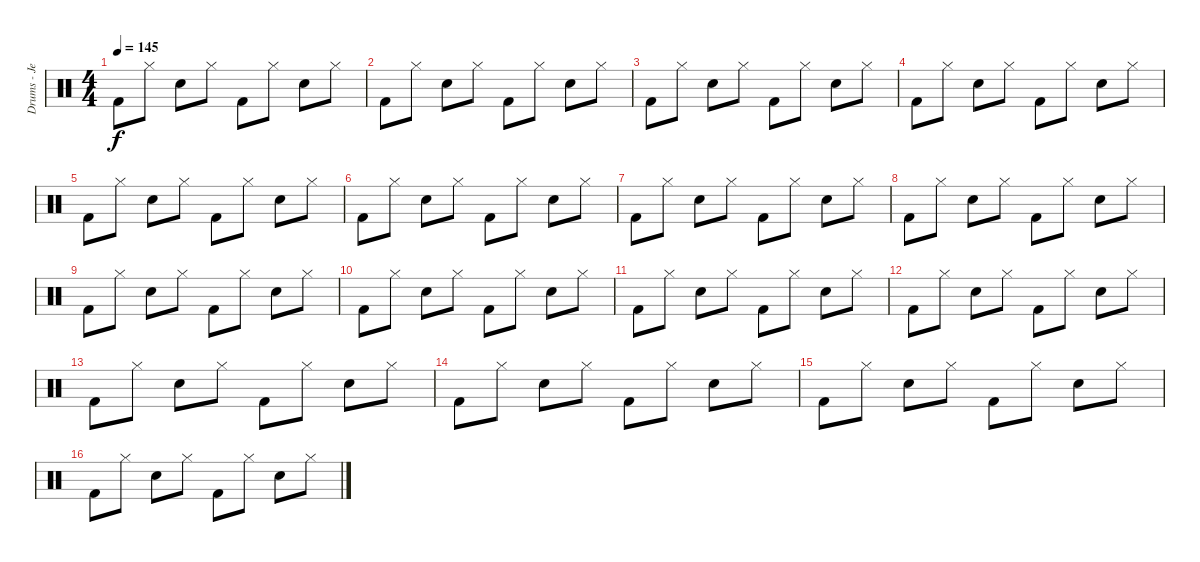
\track ("Drums - Jeremiah Green" "Drums - Je") {instrument percussion}
\staff {score}
\articulation defaults
\ts (4 4)
\tempo 145
\clef neutral
\ks c "Kick (hit) 2".8{dy f} "Hi-Hat (closed)".8 "Electric Snare (hit)".8 "Hi-Hat (closed)".8 "Kick (hit) 2".8 "Hi-Hat (closed)".8 "Electric Snare (hit)".8 "Hi-Hat (closed)".8
|
"Kick (hit) 2".8 "Hi-Hat (closed)".8 "Electric Snare (hit)".8 "Hi-Hat (closed)".8 "Kick (hit) 2".8 "Hi-Hat (closed)".8 "Electric Snare (hit)".8 "Hi-Hat (closed)".8 |
"Kick (hit) 2".8 "Hi-Hat (closed)".8 "Electric Snare (hit)".8 "Hi-Hat (closed)".8 "Kick (hit) 2".8 "Hi-Hat (closed)".8 "Electric Snare (hit)".8 "Hi-Hat (closed)".8 |
"Kick (hit) 2".8 "Hi-Hat (closed)".8 "Electric Snare (hit)".8 "Hi-Hat (closed)".8 "Kick (hit) 2".8 "Hi-Hat (closed)".8 "Electric Snare (hit)".8 "Hi-Hat (closed)".8 |
"Kick (hit) 2".8 "Hi-Hat (closed)".8 "Electric Snare (hit)".8 "Hi-Hat (closed)".8 "Kick (hit) 2".8 "Hi-Hat (closed)".8 "Electric Snare (hit)".8 "Hi-Hat (closed)".8 |
"Kick (hit) 2".8 "Hi-Hat (closed)".8 "Electric Snare (hit)".8 "Hi-Hat (closed)".8 "Kick (hit) 2".8 "Hi-Hat (closed)".8 "Electric Snare (hit)".8 "Hi-Hat (closed)".8 |
"Kick (hit) 2".8 "Hi-Hat (closed)".8 "Electric Snare (hit)".8 "Hi-Hat (closed)".8 "Kick (hit) 2".8 "Hi-Hat (closed)".8 "Electric Snare (hit)".8 "Hi-Hat (closed)".8 |
"Kick (hit) 2".8 "Hi-Hat (closed)".8 "Electric Snare (hit)".8 "Hi-Hat (closed)".8 "Kick (hit) 2".8 "Hi-Hat (closed)".8 "Electric Snare (hit)".8 "Hi-Hat (closed)".8 |
"Kick (hit) 2".8 "Hi-Hat (closed)".8 "Electric Snare (hit)".8 "Hi-Hat (closed)".8 "Kick (hit) 2".8 "Hi-Hat (closed)".8 "Electric Snare (hit)".8 "Hi-Hat (closed)".8 |
"Kick (hit) 2".8 "Hi-Hat (closed)".8 "Electric Snare (hit)".8 "Hi-Hat (closed)".8 "Kick (hit) 2".8 "Hi-Hat (closed)".8 "Electric Snare (hit)".8 "Hi-Hat (closed)".8 |
"Kick (hit) 2".8 "Hi-Hat (closed)".8 "Electric Snare (hit)".8 "Hi-Hat (closed)".8 "Kick (hit) 2".8 "Hi-Hat (closed)".8 "Electric Snare (hit)".8 "Hi-Hat (closed)".8 |
"Kick (hit) 2".8 "Hi-Hat (closed)".8 "Electric Snare (hit)".8 "Hi-Hat (closed)".8 "Kick (hit) 2".8 "Hi-Hat (closed)".8 "Electric Snare (hit)".8 "Hi-Hat (closed)".8 |
"Kick (hit) 2".8 "Hi-Hat (closed)".8 "Electric Snare (hit)".8 "Hi-Hat (closed)".8 "Kick (hit) 2".8 "Hi-Hat (closed)".8 "Electric Snare (hit)".8 "Hi-Hat (closed)".8 |
"Kick (hit) 2".8 "Hi-Hat (closed)".8 "Electric Snare (hit)".8 "Hi-Hat (closed)".8 "Kick (hit) 2".8 "Hi-Hat (closed)".8 "Electric Snare (hit)".8 "Hi-Hat (closed)".8 |
"Kick (hit) 2".8 "Hi-Hat (closed)".8 "Electric Snare (hit)".8 "Hi-Hat (closed)".8 "Kick (hit) 2".8 "Hi-Hat (closed)".8 "Electric Snare (hit)".8 "Hi-Hat (closed)".8 |
"Kick (hit) 2".8 "Hi-Hat (closed)".8 "Electric Snare (hit)".8 "Hi-Hat (closed)".8 "Kick (hit) 2".8 "Hi-Hat (closed)".8 "Electric Snare (hit)".8 "Hi-Hat (closed)".8
